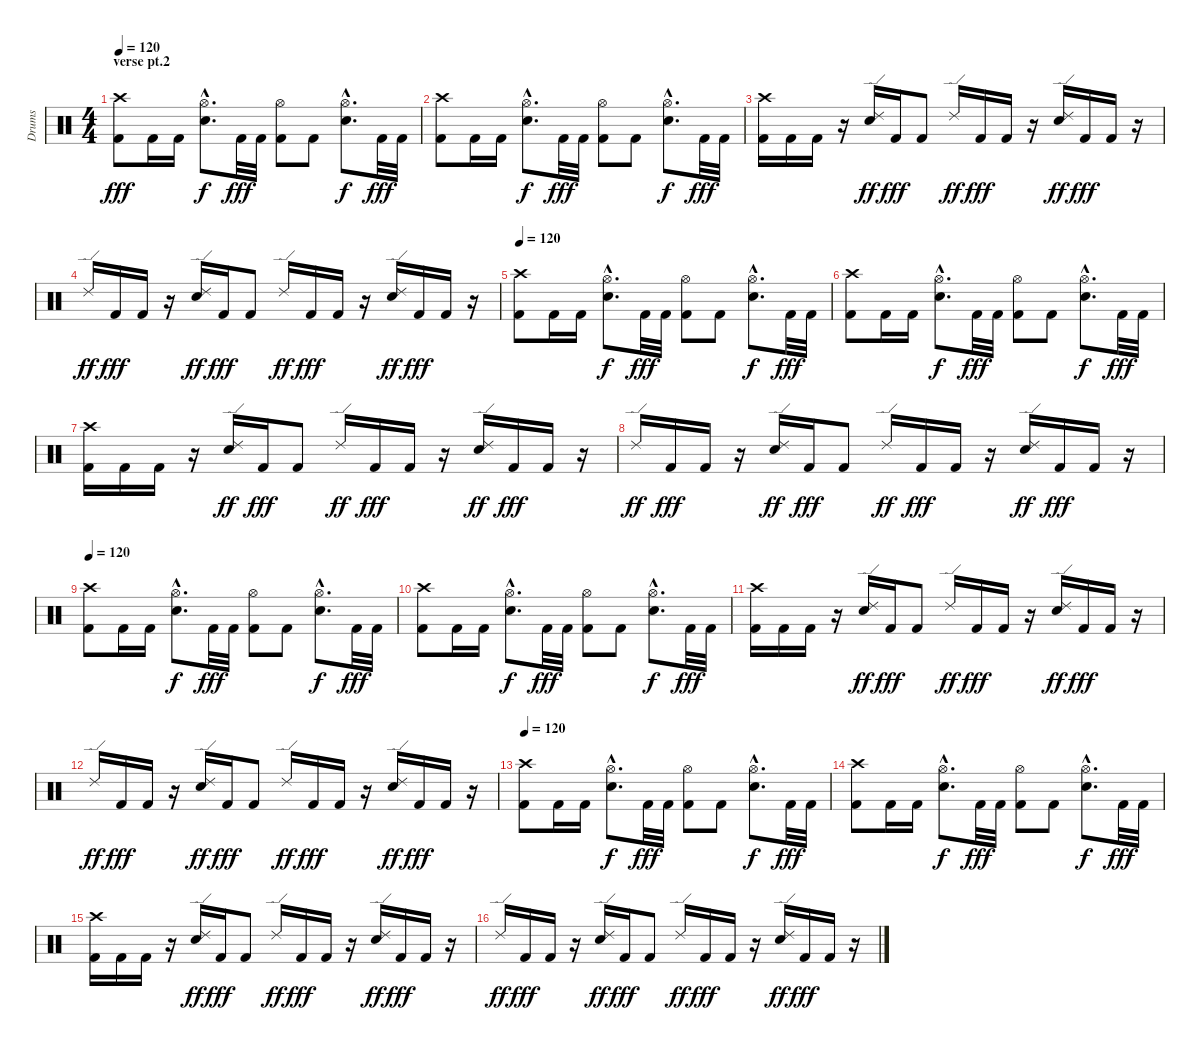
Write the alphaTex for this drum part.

\track ("Drums" "Drums") {instrument percussion}
\staff {score}
\articulation defaults
\ts (4 4)
\section ("" "verse pt.2")
\tempo 120
\clef neutral
\ks c
("Crash high (hit)" "Kick (hit) 2").8{dy fff} "Kick (hit) 2".16 "Kick (hit) 2".16 ("Hi-Hat (open)"{hac} "Snare (hit) 2"{hac}).8{d dy f} "Kick (hit) 2".32{dy fff} "Kick (hit) 2".32 ("Hi-Hat (open)" "Kick (hit) 2").8 "Kick (hit) 2".8 ("Hi-Hat (open)"{hac} "Snare (hit) 2"{hac}).8{d dy f} "Kick (hit) 2".32{dy fff} "Kick (hit) 2".32 |
("Crash high (hit)" "Kick (hit) 2").8 "Kick (hit) 2".16 "Kick (hit) 2".16 ("Hi-Hat (open)"{hac} "Snare (hit) 2"{hac}).8{d dy f} "Kick (hit) 2".32{dy fff} "Kick (hit) 2".32 ("Hi-Hat (open)" "Kick (hit) 2").8 "Kick (hit) 2".8 ("Hi-Hat (open)"{hac} "Snare (hit) 2"{hac}).8{d dy f} "Kick (hit) 2".32{dy fff} "Kick (hit) 2".32 |
("Crash high (hit)" "Kick (hit) 2").16 "Kick (hit) 2".16 "Kick (hit) 2".16 r.16 ("Ride (edge) 2" "Snare (hit) 2").16{dy ff} "Kick (hit) 2".16{dy fff} "Kick (hit) 2".8 "Ride (edge) 2".16{dy ff} "Kick (hit) 2".16{dy fff} "Kick (hit) 2".16 r.16 ("Ride (edge) 2" "Snare (hit) 2").16{dy ff} "Kick (hit) 2".16{dy fff} "Kick (hit) 2".16 r.16 |
"Ride (edge) 2".16{dy ff} "Kick (hit) 2".16{dy fff} "Kick (hit) 2".16 r.16 ("Ride (edge) 2" "Snare (hit) 2").16{dy ff} "Kick (hit) 2".16{dy fff} "Kick (hit) 2".8 "Ride (edge) 2".16{dy ff} "Kick (hit) 2".16{dy fff} "Kick (hit) 2".16 r.16 ("Ride (edge) 2" "Snare (hit) 2").16{dy ff} "Kick (hit) 2".16{dy fff} "Kick (hit) 2".16 r.16 |
\tempo 120
("Crash high (hit)" "Kick (hit) 2").8 "Kick (hit) 2".16 "Kick (hit) 2".16 ("Hi-Hat (open)"{hac} "Snare (hit) 2"{hac}).8{d dy f} "Kick (hit) 2".32{dy fff} "Kick (hit) 2".32 ("Hi-Hat (open)" "Kick (hit) 2").8 "Kick (hit) 2".8 ("Hi-Hat (open)"{hac} "Snare (hit) 2"{hac}).8{d dy f} "Kick (hit) 2".32{dy fff} "Kick (hit) 2".32 |
("Crash high (hit)" "Kick (hit) 2").8 "Kick (hit) 2".16 "Kick (hit) 2".16 ("Hi-Hat (open)"{hac} "Snare (hit) 2"{hac}).8{d dy f} "Kick (hit) 2".32{dy fff} "Kick (hit) 2".32 ("Hi-Hat (open)" "Kick (hit) 2").8 "Kick (hit) 2".8 ("Hi-Hat (open)"{hac} "Snare (hit) 2"{hac}).8{d dy f} "Kick (hit) 2".32{dy fff} "Kick (hit) 2".32 |
("Crash high (hit)" "Kick (hit) 2").16 "Kick (hit) 2".16 "Kick (hit) 2".16 r.16 ("Ride (edge) 2" "Snare (hit) 2").16{dy ff} "Kick (hit) 2".16{dy fff} "Kick (hit) 2".8 "Ride (edge) 2".16{dy ff} "Kick (hit) 2".16{dy fff} "Kick (hit) 2".16 r.16 ("Ride (edge) 2" "Snare (hit) 2").16{dy ff} "Kick (hit) 2".16{dy fff} "Kick (hit) 2".16 r.16 |
"Ride (edge) 2".16{dy ff} "Kick (hit) 2".16{dy fff} "Kick (hit) 2".16 r.16 ("Ride (edge) 2" "Snare (hit) 2").16{dy ff} "Kick (hit) 2".16{dy fff} "Kick (hit) 2".8 "Ride (edge) 2".16{dy ff} "Kick (hit) 2".16{dy fff} "Kick (hit) 2".16 r.16 ("Ride (edge) 2" "Snare (hit) 2").16{dy ff} "Kick (hit) 2".16{dy fff} "Kick (hit) 2".16 r.16 |
\tempo 120
("Crash high (hit)" "Kick (hit) 2").8 "Kick (hit) 2".16 "Kick (hit) 2".16 ("Hi-Hat (open)"{hac} "Snare (hit) 2"{hac}).8{d dy f} "Kick (hit) 2".32{dy fff} "Kick (hit) 2".32 ("Hi-Hat (open)" "Kick (hit) 2").8 "Kick (hit) 2".8 ("Hi-Hat (open)"{hac} "Snare (hit) 2"{hac}).8{d dy f} "Kick (hit) 2".32{dy fff} "Kick (hit) 2".32 |
("Crash high (hit)" "Kick (hit) 2").8 "Kick (hit) 2".16 "Kick (hit) 2".16 ("Hi-Hat (open)"{hac} "Snare (hit) 2"{hac}).8{d dy f} "Kick (hit) 2".32{dy fff} "Kick (hit) 2".32 ("Hi-Hat (open)" "Kick (hit) 2").8 "Kick (hit) 2".8 ("Hi-Hat (open)"{hac} "Snare (hit) 2"{hac}).8{d dy f} "Kick (hit) 2".32{dy fff} "Kick (hit) 2".32 |
("Crash high (hit)" "Kick (hit) 2").16 "Kick (hit) 2".16 "Kick (hit) 2".16 r.16 ("Ride (edge) 2" "Snare (hit) 2").16{dy ff} "Kick (hit) 2".16{dy fff} "Kick (hit) 2".8 "Ride (edge) 2".16{dy ff} "Kick (hit) 2".16{dy fff} "Kick (hit) 2".16 r.16 ("Ride (edge) 2" "Snare (hit) 2").16{dy ff} "Kick (hit) 2".16{dy fff} "Kick (hit) 2".16 r.16 |
"Ride (edge) 2".16{dy ff} "Kick (hit) 2".16{dy fff} "Kick (hit) 2".16 r.16 ("Ride (edge) 2" "Snare (hit) 2").16{dy ff} "Kick (hit) 2".16{dy fff} "Kick (hit) 2".8 "Ride (edge) 2".16{dy ff} "Kick (hit) 2".16{dy fff} "Kick (hit) 2".16 r.16 ("Ride (edge) 2" "Snare (hit) 2").16{dy ff} "Kick (hit) 2".16{dy fff} "Kick (hit) 2".16 r.16 |
\tempo 120
("Crash high (hit)" "Kick (hit) 2").8 "Kick (hit) 2".16 "Kick (hit) 2".16 ("Hi-Hat (open)"{hac} "Snare (hit) 2"{hac}).8{d dy f} "Kick (hit) 2".32{dy fff} "Kick (hit) 2".32 ("Hi-Hat (open)" "Kick (hit) 2").8 "Kick (hit) 2".8 ("Hi-Hat (open)"{hac} "Snare (hit) 2"{hac}).8{d dy f} "Kick (hit) 2".32{dy fff} "Kick (hit) 2".32 |
("Crash high (hit)" "Kick (hit) 2").8 "Kick (hit) 2".16 "Kick (hit) 2".16 ("Hi-Hat (open)"{hac} "Snare (hit) 2"{hac}).8{d dy f} "Kick (hit) 2".32{dy fff} "Kick (hit) 2".32 ("Hi-Hat (open)" "Kick (hit) 2").8 "Kick (hit) 2".8 ("Hi-Hat (open)"{hac} "Snare (hit) 2"{hac}).8{d dy f} "Kick (hit) 2".32{dy fff} "Kick (hit) 2".32 |
("Crash high (hit)" "Kick (hit) 2").16 "Kick (hit) 2".16 "Kick (hit) 2".16 r.16 ("Ride (edge) 2" "Snare (hit) 2").16{dy ff} "Kick (hit) 2".16{dy fff} "Kick (hit) 2".8 "Ride (edge) 2".16{dy ff} "Kick (hit) 2".16{dy fff} "Kick (hit) 2".16 r.16 ("Ride (edge) 2" "Snare (hit) 2").16{dy ff} "Kick (hit) 2".16{dy fff} "Kick (hit) 2".16 r.16 |
"Ride (edge) 2".16{dy ff} "Kick (hit) 2".16{dy fff} "Kick (hit) 2".16 r.16 ("Ride (edge) 2" "Snare (hit) 2").16{dy ff} "Kick (hit) 2".16{dy fff} "Kick (hit) 2".8 "Ride (edge) 2".16{dy ff} "Kick (hit) 2".16{dy fff} "Kick (hit) 2".16 r.16 ("Ride (edge) 2" "Snare (hit) 2").16{dy ff} "Kick (hit) 2".16{dy fff} "Kick (hit) 2".16 r.16
